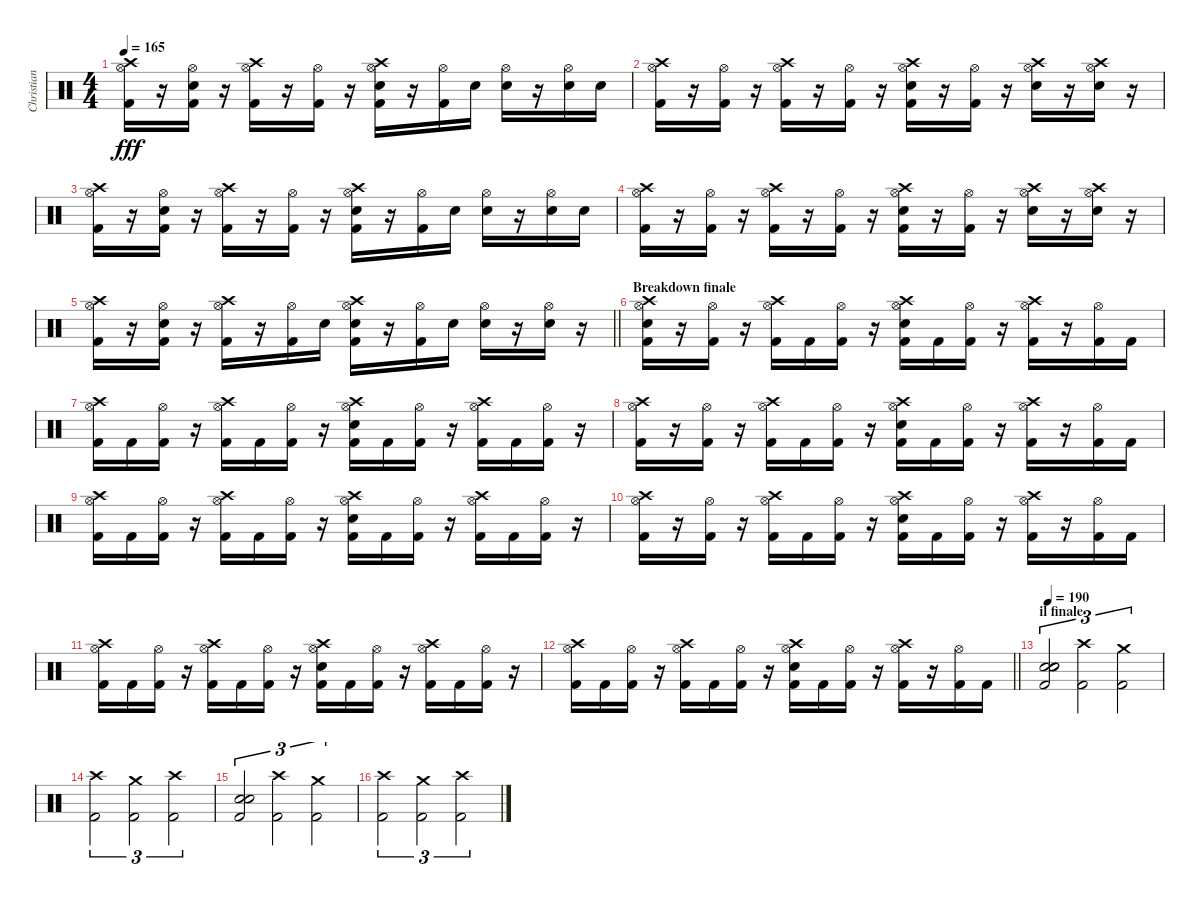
\track ("Christian Coma Mora (CC)" "Christian ") {instrument percussion}
\staff {score}
\articulation defaults
\ts (4 4)
\tempo 165
\clef neutral
\ks c
("Crash high (hit)" "Hi-Hat (open)" "Kick (hit) 2").16{dy fff} r.16 ("Hi-Hat (open)" "Snare (hit) 2" "Kick (hit) 2").16 r.16 ("Crash high (hit)" "Hi-Hat (open)" "Kick (hit) 2").16 r.16 ("Hi-Hat (open)" "Kick (hit) 2").16 r.16 ("Crash high (hit)" "Hi-Hat (open)" "Snare (hit) 2" "Kick (hit) 2").16 r.16 ("Hi-Hat (open)" "Kick (hit) 2").16 "Snare (hit) 2".16 ("Hi-Hat (open)" "Snare (hit) 2").16 r.16 ("Hi-Hat (open)" "Snare (hit) 2").16 "Snare (hit) 2".16 |
("Crash high (hit)" "Hi-Hat (open)" "Kick (hit) 2").16 r.16 ("Hi-Hat (open)" "Kick (hit) 2").16 r.16 ("Crash high (hit)" "Hi-Hat (open)" "Kick (hit) 2").16 r.16 ("Hi-Hat (open)" "Kick (hit) 2").16 r.16 ("Crash high (hit)" "Hi-Hat (open)" "Snare (hit) 2" "Kick (hit) 2").16 r.16 ("Hi-Hat (open)" "Kick (hit) 2").16 r.16 ("Crash high (hit)" "Hi-Hat (open)" "Snare (hit) 2").16 r.16 ("Crash high (hit)" "Hi-Hat (open)" "Snare (hit) 2").16 r.16 |
("Crash high (hit)" "Hi-Hat (open)" "Kick (hit) 2").16 r.16 ("Hi-Hat (open)" "Snare (hit) 2" "Kick (hit) 2").16 r.16 ("Crash high (hit)" "Hi-Hat (open)" "Kick (hit) 2").16 r.16 ("Hi-Hat (open)" "Kick (hit) 2").16 r.16 ("Crash high (hit)" "Hi-Hat (open)" "Snare (hit) 2" "Kick (hit) 2").16 r.16 ("Hi-Hat (open)" "Kick (hit) 2").16 "Snare (hit) 2".16 ("Hi-Hat (open)" "Snare (hit) 2").16 r.16 ("Hi-Hat (open)" "Snare (hit) 2").16 "Snare (hit) 2".16 |
("Crash high (hit)" "Hi-Hat (open)" "Kick (hit) 2").16 r.16 ("Hi-Hat (open)" "Kick (hit) 2").16 r.16 ("Crash high (hit)" "Hi-Hat (open)" "Kick (hit) 2").16 r.16 ("Hi-Hat (open)" "Kick (hit) 2").16 r.16 ("Crash high (hit)" "Hi-Hat (open)" "Snare (hit) 2" "Kick (hit) 2").16 r.16 ("Hi-Hat (open)" "Kick (hit) 2").16 r.16 ("Crash high (hit)" "Hi-Hat (open)" "Snare (hit) 2").16 r.16 ("Crash high (hit)" "Hi-Hat (open)" "Snare (hit) 2").16 r.16 |
\barLineRight lightlight
("Crash high (hit)" "Hi-Hat (open)" "Kick (hit) 2").16 r.16 ("Hi-Hat (open)" "Snare (hit) 2" "Kick (hit) 2").16 r.16 ("Crash high (hit)" "Hi-Hat (open)" "Kick (hit) 2").16 r.16 ("Hi-Hat (open)" "Kick (hit) 2").16 "Snare (hit) 2".16 ("Crash high (hit)" "Hi-Hat (open)" "Snare (hit) 2" "Kick (hit) 2").16 r.16 ("Hi-Hat (open)" "Kick (hit) 2").16 "Snare (hit) 2".16 ("Hi-Hat (open)" "Snare (hit) 2").16 r.16 ("Hi-Hat (open)" "Snare (hit) 2").16 r.16 |
\section ("" "Breakdown finale")
("Crash high (hit)" "Hi-Hat (open)" "Snare (hit) 2" "Kick (hit) 2").16 r.16 ("Hi-Hat (open)" "Kick (hit) 2").16 r.16 ("Crash high (hit)" "Hi-Hat (open)" "Kick (hit) 2").16 "Kick (hit) 2".16 ("Hi-Hat (open)" "Kick (hit) 2").16 r.16 ("Crash high (hit)" "Hi-Hat (open)" "Snare (hit) 2" "Kick (hit) 2").16 "Kick (hit) 2".16 ("Hi-Hat (open)" "Kick (hit) 2").16 r.16 ("Crash high (hit)" "Hi-Hat (open)" "Kick (hit) 2").16 r.16 ("Hi-Hat (open)" "Kick (hit) 2").16 "Kick (hit) 2".16 |
("Crash high (hit)" "Hi-Hat (open)" "Kick (hit) 2").16 "Kick (hit) 2".16 ("Hi-Hat (open)" "Kick (hit) 2").16 r.16 ("Crash high (hit)" "Hi-Hat (open)" "Kick (hit) 2").16 "Kick (hit) 2".16 ("Hi-Hat (open)" "Kick (hit) 2").16 r.16 ("Crash high (hit)" "Hi-Hat (open)" "Snare (hit) 2" "Kick (hit) 2").16 "Kick (hit) 2".16 ("Hi-Hat (open)" "Kick (hit) 2").16 r.16 ("Crash high (hit)" "Hi-Hat (open)" "Kick (hit) 2").16 "Kick (hit) 2".16 ("Hi-Hat (open)" "Kick (hit) 2").16 r.16 |
("Crash high (hit)" "Hi-Hat (open)" "Kick (hit) 2").16 r.16 ("Hi-Hat (open)" "Kick (hit) 2").16 r.16 ("Crash high (hit)" "Hi-Hat (open)" "Kick (hit) 2").16 "Kick (hit) 2".16 ("Hi-Hat (open)" "Kick (hit) 2").16 r.16 ("Crash high (hit)" "Hi-Hat (open)" "Snare (hit) 2" "Kick (hit) 2").16 "Kick (hit) 2".16 ("Hi-Hat (open)" "Kick (hit) 2").16 r.16 ("Crash high (hit)" "Hi-Hat (open)" "Kick (hit) 2").16 r.16 ("Hi-Hat (open)" "Kick (hit) 2").16 "Kick (hit) 2".16 |
("Crash high (hit)" "Hi-Hat (open)" "Kick (hit) 2").16 "Kick (hit) 2".16 ("Hi-Hat (open)" "Kick (hit) 2").16 r.16 ("Crash high (hit)" "Hi-Hat (open)" "Kick (hit) 2").16 "Kick (hit) 2".16 ("Hi-Hat (open)" "Kick (hit) 2").16 r.16 ("Crash high (hit)" "Hi-Hat (open)" "Snare (hit) 2" "Kick (hit) 2").16 "Kick (hit) 2".16 ("Hi-Hat (open)" "Kick (hit) 2").16 r.16 ("Crash high (hit)" "Hi-Hat (open)" "Kick (hit) 2").16 "Kick (hit) 2".16 ("Hi-Hat (open)" "Kick (hit) 2").16 r.16 |
("Crash high (hit)" "Hi-Hat (open)" "Kick (hit) 2").16 r.16 ("Hi-Hat (open)" "Kick (hit) 2").16 r.16 ("Crash high (hit)" "Hi-Hat (open)" "Kick (hit) 2").16 "Kick (hit) 2".16 ("Hi-Hat (open)" "Kick (hit) 2").16 r.16 ("Crash high (hit)" "Hi-Hat (open)" "Snare (hit) 2" "Kick (hit) 2").16 "Kick (hit) 2".16 ("Hi-Hat (open)" "Kick (hit) 2").16 r.16 ("Crash high (hit)" "Hi-Hat (open)" "Kick (hit) 2").16 r.16 ("Hi-Hat (open)" "Kick (hit) 2").16 "Kick (hit) 2".16 |
("Crash high (hit)" "Hi-Hat (open)" "Kick (hit) 2").16 "Kick (hit) 2".16 ("Hi-Hat (open)" "Kick (hit) 2").16 r.16 ("Crash high (hit)" "Hi-Hat (open)" "Kick (hit) 2").16 "Kick (hit) 2".16 ("Hi-Hat (open)" "Kick (hit) 2").16 r.16 ("Crash high (hit)" "Hi-Hat (open)" "Snare (hit) 2" "Kick (hit) 2").16 "Kick (hit) 2".16 ("Hi-Hat (open)" "Kick (hit) 2").16 r.16 ("Crash high (hit)" "Hi-Hat (open)" "Kick (hit) 2").16 "Kick (hit) 2".16 ("Hi-Hat (open)" "Kick (hit) 2").16 r.16 |
\barLineRight lightlight
("Crash high (hit)" "Hi-Hat (open)" "Kick (hit) 2").16 "Kick (hit) 2".16 ("Hi-Hat (open)" "Kick (hit) 2").16 r.16 ("Crash high (hit)" "Hi-Hat (open)" "Kick (hit) 2").16 "Kick (hit) 2".16 ("Hi-Hat (open)" "Kick (hit) 2").16 r.16 ("Crash high (hit)" "Hi-Hat (open)" "Snare (hit) 2" "Kick (hit) 2").16 "Kick (hit) 2".16 ("Hi-Hat (open)" "Kick (hit) 2").16 r.16 ("Crash high (hit)" "Hi-Hat (open)" "Kick (hit) 2").16 r.16 ("Hi-Hat (open)" "Kick (hit) 2").16 "Kick (hit) 2".16 |
\section ("" "il finale")
\tempo 190
("Snare (hit) 2" "Snare (hit) 2" "Electric Snare (hit)" "Kick (hit) 2").2{tu (3 2)} ("Crash high (hit)" "Kick (hit) 2").2{tu (3 2)} ("Crash medium (hit)" "Kick (hit) 2").2{tu (3 2)} |
("Crash high (hit)" "Kick (hit) 2").2{tu (3 2)} ("Crash medium (hit)" "Kick (hit) 2").2{tu (3 2)} ("Crash high (hit)" "Kick (hit) 2").2{tu (3 2)} |
("Snare (hit) 2" "Electric Snare (hit)" "Kick (hit) 2").2{tu (3 2)} ("Crash high (hit)" "Kick (hit) 2").2{tu (3 2)} ("Crash medium (hit)" "Kick (hit) 2").2{tu (3 2)} |
("Crash high (hit)" "Kick (hit) 2").2{tu (3 2)} ("Crash medium (hit)" "Kick (hit) 2").2{tu (3 2)} ("Crash high (hit)" "Kick (hit) 2").2{tu (3 2)}
